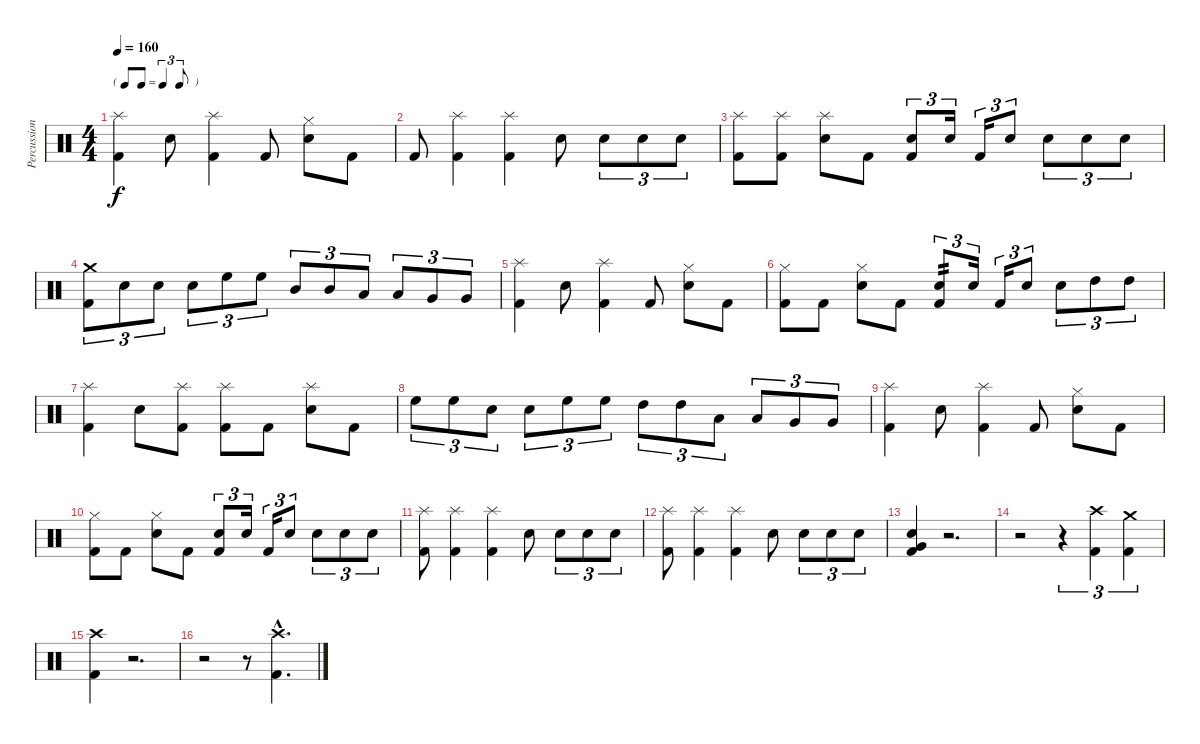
\track ("Percussion" "Percussion") {instrument percussion}
\staff {score}
\articulation defaults
\ts (4 4)
\tf triplet8th
\tempo 160
\clef neutral
\ks c
("Kick (hit) 2" "Splash (hit)").4{dy f} "Snare (hit) 2".8 ("Kick (hit) 2" "Splash (hit)").4 "Kick (hit) 2".8 ("Snare (hit) 2" "Hi-Hat (closed)").8 "Kick (hit) 2".8 |
"Kick (hit) 2".8 ("Kick (hit) 2" "Splash (hit)").4 ("Kick (hit) 2" "Splash (hit)").4 "Snare (hit) 2".8 "Snare (hit) 2".8{tu (3 2)} "Snare (hit) 2".8{tu (3 2)} "Snare (hit) 2".8{tu (3 2)} |
("Kick (hit) 2" "Splash (hit)").8 ("Kick (hit) 2" "Splash (hit)").8 ("Snare (hit) 2" "Splash (hit)").8 "Kick (hit) 2".8 ("Snare (hit) 2" "Kick (hit) 2").8{tu (3 2)} "Snare (hit) 2".16{tu (3 2)} "Kick (hit) 2".16{tu (3 2)} "Snare (hit) 2".8{tu (3 2)} "Snare (hit) 2".8{tu (3 2)} "Snare (hit) 2".8{tu (3 2)} "Snare (hit) 2".8{tu (3 2)} |
("Kick (hit) 2" "Crash medium (hit)").8{tu (3 2)} "Snare (hit) 2".8{tu (3 2)} "Snare (hit) 2".8{tu (3 2)} "Snare (hit) 2".8{tu (3 2)} "High Floor Tom (hit)".8{tu (3 2)} "High Floor Tom (hit)".8{tu (3 2)} "Mid Tom (hit)".8{tu (3 2)} "Mid Tom (hit)".8{tu (3 2)} "Low Tom (hit)".8{tu (3 2)} "Low Tom (hit)".8{tu (3 2)} "Very Low Tom (hit)".8{tu (3 2)} "Very Low Tom (hit)".8{tu (3 2)} |
("Kick (hit) 2" "Splash (hit)").4 "Snare (hit) 2".8 ("Kick (hit) 2" "Splash (hit)").4 "Kick (hit) 2".8 ("Snare (hit) 2" "Hi-Hat (closed)").8 "Kick (hit) 2".8 |
("Kick (hit) 2" "Hi-Hat (closed)").8 "Kick (hit) 2".8 ("Snare (hit) 2" "Hi-Hat (closed)").8 "Kick (hit) 2".8 ("Snare (hit) 2" "Kick (hit) 2").8{tu (3 2) tp 2} "Snare (hit) 2".16{tu (3 2)} "Kick (hit) 2".16{tu (3 2)} "Snare (hit) 2".8{tu (3 2)} "Snare (hit) 2".8{tu (3 2)} "High Tom (hit)".8{tu (3 2)} "High Tom (hit)".8{tu (3 2)} |
("Kick (hit) 2" "Splash (hit)").4 "Snare (hit) 2".8 ("Kick (hit) 2" "Splash (hit)").8 ("Kick (hit) 2" "Splash (hit)").8 "Kick (hit) 2".8 ("Snare (hit) 2" "Splash (hit)").8 "Kick (hit) 2".8 |
"High Floor Tom (hit)".8{tu (3 2)} "High Floor Tom (hit)".8{tu (3 2)} "Snare (hit) 2".8{tu (3 2)} "Snare (hit) 2".8{tu (3 2)} "High Floor Tom (hit)".8{tu (3 2)} "High Floor Tom (hit)".8{tu (3 2)} "High Tom (hit)".8{tu (3 2)} "High Tom (hit)".8{tu (3 2)} "Low Tom (hit)".8{tu (3 2)} "Low Tom (hit)".8{tu (3 2)} "Very Low Tom (hit)".8{tu (3 2)} "Very Low Tom (hit)".8{tu (3 2)} |
("Kick (hit) 2" "Splash (hit)").4 "Snare (hit) 2".8 ("Kick (hit) 2" "Splash (hit)").4 "Kick (hit) 2".8 ("Snare (hit) 2" "Hi-Hat (closed)").8 "Kick (hit) 2".8 |
("Kick (hit) 2" "Hi-Hat (closed)").8 "Kick (hit) 2".8 ("Snare (hit) 2" "Hi-Hat (closed)").8 "Kick (hit) 2".8 ("Snare (hit) 2" "Kick (hit) 2").8{tu (3 2)} "Snare (hit) 2".16{tu (3 2)} "Kick (hit) 2".16{tu (3 2)} "Snare (hit) 2".8{tu (3 2)} "Snare (hit) 2".8{tu (3 2)} "Snare (hit) 2".8{tu (3 2)} "Snare (hit) 2".8{tu (3 2)} |
("Kick (hit) 2" "Splash (hit)").8 ("Kick (hit) 2" "Splash (hit)").4 ("Kick (hit) 2" "Splash (hit)").4 "Snare (hit) 2".8 "Snare (hit) 2".8{tu (3 2)} "Snare (hit) 2".8{tu (3 2)} "Snare (hit) 2".8{tu (3 2)} |
("Kick (hit) 2" "Splash (hit)").8 ("Kick (hit) 2" "Splash (hit)").4 ("Kick (hit) 2" "Splash (hit)").4 "Snare (hit) 2".8 "Snare (hit) 2".8{tu (3 2)} "Snare (hit) 2".8{tu (3 2)} "Snare (hit) 2".8{tu (3 2)} |
("Kick (hit) 2" "Very Low Tom (hit)" "Snare (hit) 2").4 r.2{d} |
r.2 r.4{tu (3 2)} ("Kick (hit) 2" "Crash high (hit)").4{tu (3 2)} ("Kick (hit) 2" "Crash medium (hit)").4{tu (3 2)} |
("Kick (hit) 2" "Crash high (hit)").4 r.2{d} |
r.2 r.8 ("Kick (hit) 2"{hac} "Crash high (hit)"{hac}).4{d}
